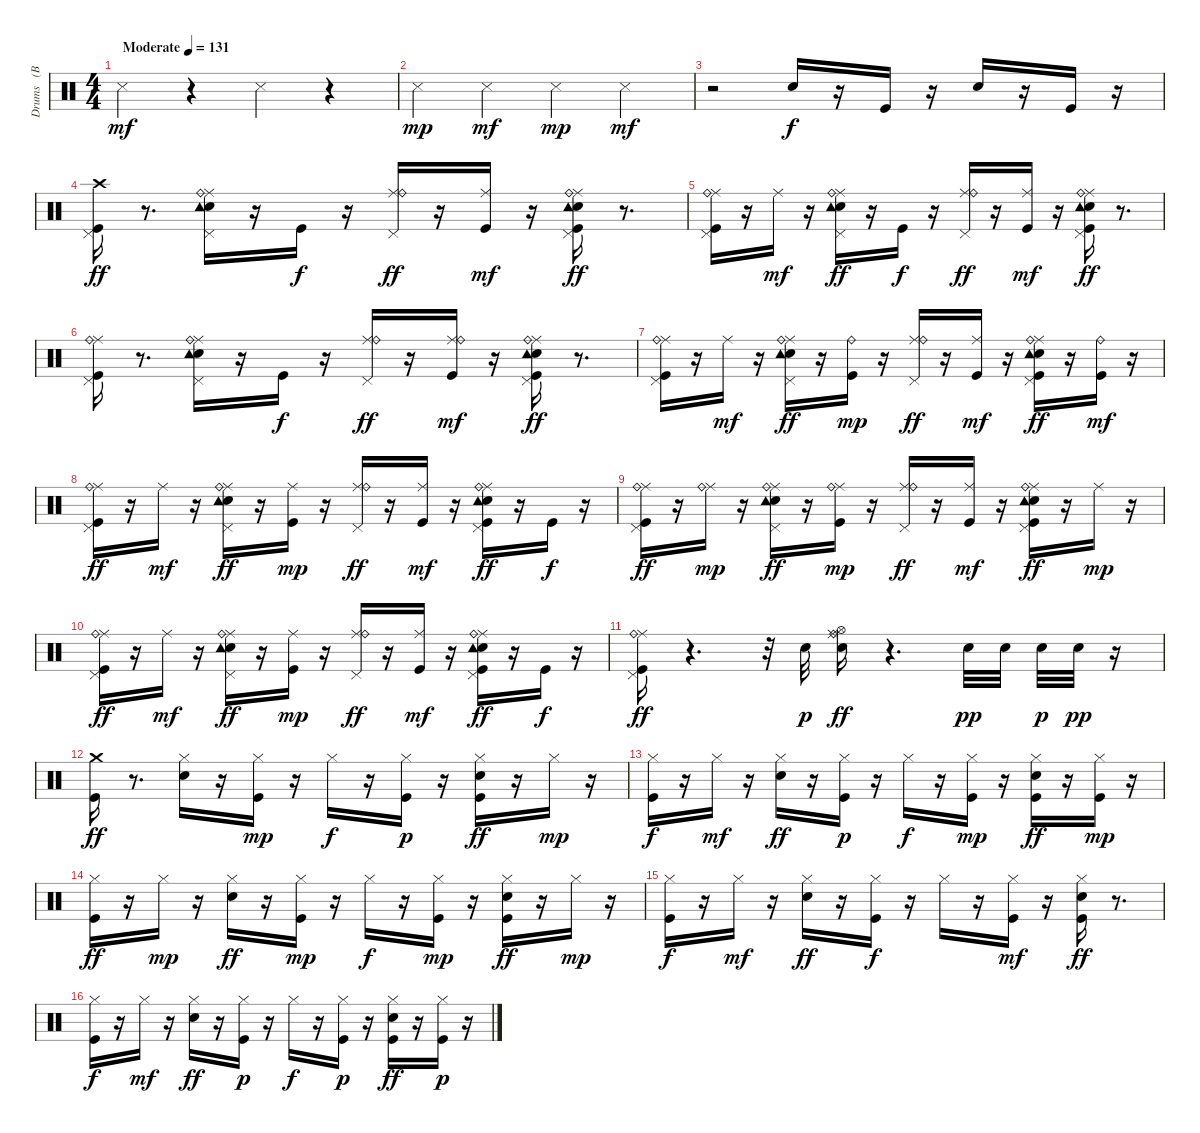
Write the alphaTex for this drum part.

\track ("Drums   (BB)" "Drums   (B") {instrument percussion}
\staff {score}
\articulation defaults
\ts (4 4)
\tempo (131 "Moderate")
\clef neutral
\ks c "Snare (side stick) 3".4{dy mf}
r.4 "Snare (side stick) 3".4 r.4 |
"Snare (side stick) 3".4{dy mp} "Snare (side stick) 3".4{dy mf} "Snare (side stick) 3".4{dy mp} "Snare (side stick) 3".4{dy mf} |
r.2 "Snare (hit) 2".16{dy f} r.16 "Kick (hit)".16 r.16 "Snare (hit) 2".16 r.16 "Kick (hit)".16 r.16 |
("Kick (hit)" "Pedal Hi-Hat (hit)" "Crash high (hit)").16{dy ff} r.8{d} ("Snare (hit) 2" "Tambourine (hit)" "Pedal Hi-Hat (hit)" "Ride (middle)" "Ride (bell)").16 r.16 "Kick (hit)".16{dy f} r.16 ("Pedal Hi-Hat (hit)" "Ride (middle)" "Ride (bell)").16{dy ff} r.16 ("Kick (hit)" "Ride (middle)").16{dy mf} r.16 ("Kick (hit)" "Snare (hit) 2" "Tambourine (hit)" "Pedal Hi-Hat (hit)" "Ride (middle)" "Ride (bell)").16{dy ff} r.8{d} |
("Kick (hit)" "Pedal Hi-Hat (hit)" "Ride (middle)" "Ride (bell)").16 r.16 "Ride (middle)".16{dy mf} r.16 ("Snare (hit) 2" "Tambourine (hit)" "Pedal Hi-Hat (hit)" "Ride (middle)" "Ride (bell)").16{dy ff} r.16 "Kick (hit)".16{dy f} r.16 ("Pedal Hi-Hat (hit)" "Ride (middle)" "Ride (bell)").16{dy ff} r.16 ("Kick (hit)" "Ride (middle)").16{dy mf} r.16 ("Kick (hit)" "Snare (hit) 2" "Tambourine (hit)" "Pedal Hi-Hat (hit)" "Ride (middle)" "Ride (bell)").16{dy ff} r.8{d} |
("Kick (hit)" "Pedal Hi-Hat (hit)" "Ride (middle)" "Ride (bell)").16 r.8{d} ("Snare (hit) 2" "Tambourine (hit)" "Pedal Hi-Hat (hit)" "Ride (middle)" "Ride (bell)").16 r.16 "Kick (hit)".16{dy f} r.16 ("Pedal Hi-Hat (hit)" "Ride (middle)" "Ride (bell)").16{dy ff} r.16 ("Kick (hit)" "Ride (middle)" "Ride (bell)").16{dy mf} r.16 ("Kick (hit)" "Snare (hit) 2" "Tambourine (hit)" "Pedal Hi-Hat (hit)" "Ride (middle)" "Ride (bell)").16{dy ff} r.8{d} |
("Kick (hit)" "Pedal Hi-Hat (hit)" "Ride (middle)" "Ride (bell)").16 r.16 "Ride (middle)".16{dy mf} r.16 ("Snare (hit) 2" "Tambourine (hit)" "Pedal Hi-Hat (hit)" "Ride (middle)" "Ride (bell)").16{dy ff} r.16 ("Kick (hit)" "Ride (bell)").16{dy mp} r.16 ("Pedal Hi-Hat (hit)" "Ride (middle)" "Ride (bell)").16{dy ff} r.16 ("Kick (hit)" "Ride (middle)").16{dy mf} r.16 ("Kick (hit)" "Snare (hit) 2" "Tambourine (hit)" "Pedal Hi-Hat (hit)" "Ride (middle)" "Ride (bell)").16{dy ff} r.16 ("Kick (hit)" "Ride (bell)").16{dy mf} r.16 |
("Kick (hit)" "Pedal Hi-Hat (hit)" "Ride (middle)" "Ride (bell)").16{dy ff} r.16 "Ride (middle)".16{dy mf} r.16 ("Snare (hit) 2" "Tambourine (hit)" "Pedal Hi-Hat (hit)" "Ride (middle)" "Ride (bell)").16{dy ff} r.16 ("Kick (hit)" "Ride (middle)").16{dy mp} r.16 ("Pedal Hi-Hat (hit)" "Ride (middle)" "Ride (bell)").16{dy ff} r.16 ("Kick (hit)" "Ride (middle)").16{dy mf} r.16 ("Kick (hit)" "Snare (hit) 2" "Tambourine (hit)" "Pedal Hi-Hat (hit)" "Ride (middle)" "Ride (bell)").16{dy ff} r.16 "Kick (hit)".16{dy f} r.16 |
("Kick (hit)" "Pedal Hi-Hat (hit)" "Ride (middle)" "Ride (bell)").16{dy ff} r.16 ("Ride (middle)" "Ride (bell)").16{dy mp} r.16 ("Snare (hit) 2" "Tambourine (hit)" "Pedal Hi-Hat (hit)" "Ride (middle)" "Ride (bell)").16{dy ff} r.16 ("Kick (hit)" "Ride (middle)" "Ride (bell)").16{dy mp} r.16 ("Pedal Hi-Hat (hit)" "Ride (middle)" "Ride (bell)").16{dy ff} r.16 ("Kick (hit)" "Ride (middle)").16{dy mf} r.16 ("Kick (hit)" "Snare (hit) 2" "Tambourine (hit)" "Pedal Hi-Hat (hit)" "Ride (middle)" "Ride (bell)").16{dy ff} r.16 "Ride (middle)".16{dy mp} r.16 |
("Kick (hit)" "Pedal Hi-Hat (hit)" "Ride (middle)" "Ride (bell)").16{dy ff} r.16 "Ride (middle)".16{dy mf} r.16 ("Snare (hit) 2" "Tambourine (hit)" "Pedal Hi-Hat (hit)" "Ride (middle)" "Ride (bell)").16{dy ff} r.16 ("Kick (hit)" "Ride (middle)").16{dy mp} r.16 ("Pedal Hi-Hat (hit)" "Ride (middle)" "Ride (bell)").16{dy ff} r.16 ("Kick (hit)" "Ride (middle)").16{dy mf} r.16 ("Kick (hit)" "Snare (hit) 2" "Tambourine (hit)" "Pedal Hi-Hat (hit)" "Ride (middle)" "Ride (bell)").16{dy ff} r.16 "Kick (hit)".16{dy f} r.16 |
("Kick (hit)" "Pedal Hi-Hat (hit)" "Ride (middle)" "Ride (bell)").16{dy ff} r.4{d} r.32 "Snare (hit) 2".32{dy p} ("Snare (hit) 2" "Hi-Hat (open)" "Ride (middle)" "Ride (bell)").16{dy ff} r.4{d} "Snare (hit) 2".32{dy pp} "Snare (hit) 2".32 "Snare (hit) 2".32{dy p} "Snare (hit) 2".32{dy pp} r.16 |
("Kick (hit)" "Crash medium (hit)").16{dy ff} r.8{d} ("Snare (hit) 2" "Hi-Hat (closed)").16 r.16 ("Kick (hit)" "Hi-Hat (closed)").16{dy mp} r.16 "Hi-Hat (closed)".16{dy f} r.16 ("Kick (hit)" "Hi-Hat (closed)").16{dy p} r.16 ("Kick (hit)" "Snare (hit) 2" "Hi-Hat (closed)").16{dy ff} r.16 "Hi-Hat (closed)".16{dy mp} r.16 |
("Kick (hit)" "Hi-Hat (closed)").16{dy f} r.16 "Hi-Hat (closed)".16{dy mf} r.16 ("Snare (hit) 2" "Hi-Hat (closed)").16{dy ff} r.16 ("Kick (hit)" "Hi-Hat (closed)").16{dy p} r.16 "Hi-Hat (closed)".16{dy f} r.16 ("Kick (hit)" "Hi-Hat (closed)").16{dy mp} r.16 ("Kick (hit)" "Snare (hit) 2" "Hi-Hat (closed)").16{dy ff} r.16 ("Kick (hit)" "Hi-Hat (closed)").16{dy mp} r.16 |
("Kick (hit)" "Hi-Hat (closed)").16{dy ff} r.16 "Hi-Hat (closed)".16{dy mp} r.16 ("Snare (hit) 2" "Hi-Hat (closed)").16{dy ff} r.16 ("Kick (hit)" "Hi-Hat (closed)").16{dy mp} r.16 "Hi-Hat (closed)".16{dy f} r.16 ("Kick (hit)" "Hi-Hat (closed)").16{dy mp} r.16 ("Kick (hit)" "Snare (hit) 2" "Hi-Hat (closed)").16{dy ff} r.16 "Hi-Hat (closed)".16{dy mp} r.16 |
("Kick (hit)" "Hi-Hat (closed)").16{dy f} r.16 "Hi-Hat (closed)".16{dy mf} r.16 ("Snare (hit) 2" "Hi-Hat (closed)").16{dy ff} r.16 ("Kick (hit)" "Hi-Hat (closed)").16{dy f} r.16 "Hi-Hat (closed)".16 r.16 ("Kick (hit)" "Hi-Hat (closed)").16{dy mf} r.16 ("Kick (hit)" "Snare (hit) 2" "Hi-Hat (closed)").16{dy ff} r.8{d} |
("Kick (hit)" "Hi-Hat (closed)").16{dy f} r.16 "Hi-Hat (closed)".16{dy mf} r.16 ("Snare (hit) 2" "Hi-Hat (closed)").16{dy ff} r.16 ("Kick (hit)" "Hi-Hat (closed)").16{dy p} r.16 "Hi-Hat (closed)".16{dy f} r.16 ("Kick (hit)" "Hi-Hat (closed)").16{dy p} r.16 ("Kick (hit)" "Snare (hit) 2" "Hi-Hat (closed)").16{dy ff} r.16 ("Kick (hit)" "Hi-Hat (closed)").16{dy p} r.16
